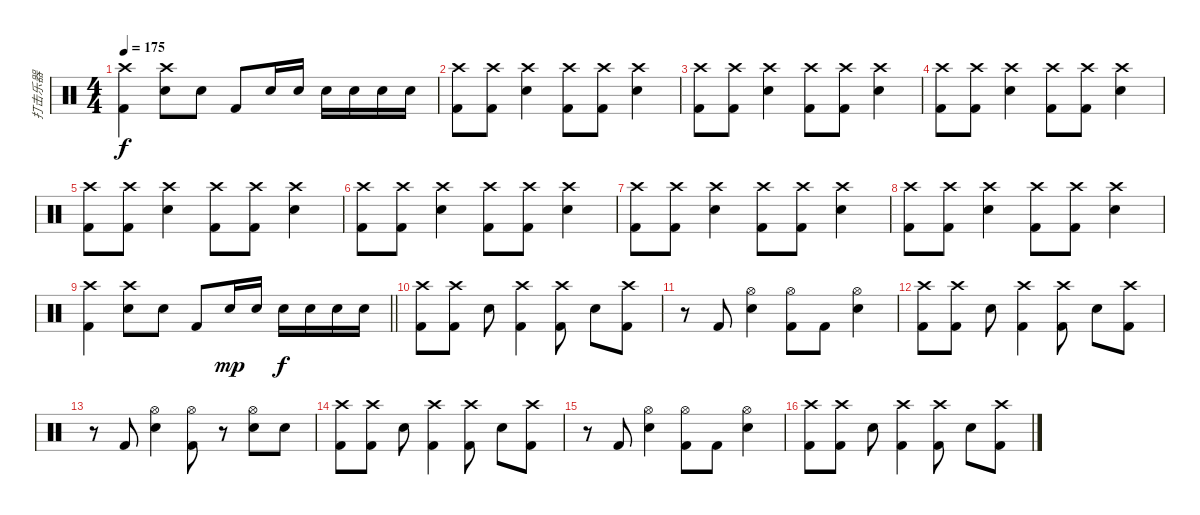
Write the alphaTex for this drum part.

\track ("打击乐器" "打击乐器") {instrument percussion}
\staff {score}
\articulation defaults
\ts (4 4)
\tempo 175
\clef neutral
\ks c
("Crash high (hit)" "Kick (hit) 2").4{dy f} ("Crash high (hit)" "Electric Snare (hit)").8 "Electric Snare (hit)".8 "Kick (hit) 2".8 "Electric Snare (hit)".16 "Electric Snare (hit)".16 "Electric Snare (hit)".16 "Electric Snare (hit)".16 "Electric Snare (hit)".16 "Electric Snare (hit)".16 |
("Crash high (hit)" "Kick (hit) 2").8 ("Crash high (hit)" "Kick (hit) 2").8 ("Crash high (hit)" "Electric Snare (hit)").4 ("Crash high (hit)" "Kick (hit) 2").8 ("Crash high (hit)" "Kick (hit) 2").8 ("Crash high (hit)" "Electric Snare (hit)").4 |
("Crash high (hit)" "Kick (hit) 2").8 ("Crash high (hit)" "Kick (hit) 2").8 ("Crash high (hit)" "Electric Snare (hit)").4 ("Crash high (hit)" "Kick (hit) 2").8 ("Crash high (hit)" "Kick (hit) 2").8 ("Crash high (hit)" "Electric Snare (hit)").4 |
("Crash high (hit)" "Kick (hit) 2").8 ("Crash high (hit)" "Kick (hit) 2").8 ("Crash high (hit)" "Electric Snare (hit)").4 ("Crash high (hit)" "Kick (hit) 2").8 ("Crash high (hit)" "Kick (hit) 2").8 ("Crash high (hit)" "Electric Snare (hit)").4 |
("Crash high (hit)" "Kick (hit) 2").8 ("Crash high (hit)" "Kick (hit) 2").8 ("Crash high (hit)" "Electric Snare (hit)").4 ("Crash high (hit)" "Kick (hit) 2").8 ("Crash high (hit)" "Kick (hit) 2").8 ("Crash high (hit)" "Electric Snare (hit)").4 |
("Crash high (hit)" "Kick (hit) 2").8 ("Crash high (hit)" "Kick (hit) 2").8 ("Crash high (hit)" "Electric Snare (hit)").4 ("Crash high (hit)" "Kick (hit) 2").8 ("Crash high (hit)" "Kick (hit) 2").8 ("Crash high (hit)" "Electric Snare (hit)").4 |
("Crash high (hit)" "Kick (hit) 2").8 ("Crash high (hit)" "Kick (hit) 2").8 ("Crash high (hit)" "Electric Snare (hit)").4 ("Crash high (hit)" "Kick (hit) 2").8 ("Crash high (hit)" "Kick (hit) 2").8 ("Crash high (hit)" "Electric Snare (hit)").4 |
("Crash high (hit)" "Kick (hit) 2").8 ("Crash high (hit)" "Kick (hit) 2").8 ("Crash high (hit)" "Electric Snare (hit)").4 ("Crash high (hit)" "Kick (hit) 2").8 ("Crash high (hit)" "Kick (hit) 2").8 ("Crash high (hit)" "Electric Snare (hit)").4 |
\barLineRight lightlight
("Crash high (hit)" "Kick (hit) 2").4 ("Crash high (hit)" "Electric Snare (hit)").8 "Electric Snare (hit)".8 "Kick (hit) 2".8 "Electric Snare (hit)".16{dy mp} "Electric Snare (hit)".16 "Electric Snare (hit)".16{dy f} "Electric Snare (hit)".16 "Electric Snare (hit)".16 "Electric Snare (hit)".16 |
("Crash high (hit)" "Kick (hit) 2").8 ("Crash high (hit)" "Kick (hit) 2").8 "Electric Snare (hit)".8 ("Crash high (hit)" "Kick (hit) 2").4 ("Crash high (hit)" "Kick (hit) 2").8 "Electric Snare (hit)".8 ("Crash high (hit)" "Kick (hit) 2").8 |
r.8 "Kick (hit) 2".8 ("Hi-Hat (open)" "Electric Snare (hit)").4 ("Hi-Hat (open)" "Kick (hit) 2").8 "Kick (hit) 2".8 ("Hi-Hat (open)" "Electric Snare (hit)").4 |
("Crash high (hit)" "Kick (hit) 2").8 ("Crash high (hit)" "Kick (hit) 2").8 "Electric Snare (hit)".8 ("Crash high (hit)" "Kick (hit) 2").4 ("Crash high (hit)" "Kick (hit) 2").8 "Electric Snare (hit)".8 ("Crash high (hit)" "Kick (hit) 2").8 |
r.8 "Kick (hit) 2".8 ("Hi-Hat (open)" "Electric Snare (hit)").4 ("Hi-Hat (open)" "Kick (hit) 2").8 r.8 ("Hi-Hat (open)" "Electric Snare (hit)").8 "Electric Snare (hit)".8 |
("Crash high (hit)" "Kick (hit) 2").8 ("Crash high (hit)" "Kick (hit) 2").8 "Electric Snare (hit)".8 ("Crash high (hit)" "Kick (hit) 2").4 ("Crash high (hit)" "Kick (hit) 2").8 "Electric Snare (hit)".8 ("Crash high (hit)" "Kick (hit) 2").8 |
r.8 "Kick (hit) 2".8 ("Hi-Hat (open)" "Electric Snare (hit)").4 ("Hi-Hat (open)" "Kick (hit) 2").8 "Kick (hit) 2".8 ("Hi-Hat (open)" "Electric Snare (hit)").4 |
("Crash high (hit)" "Kick (hit) 2").8 ("Crash high (hit)" "Kick (hit) 2").8 "Electric Snare (hit)".8 ("Crash high (hit)" "Kick (hit) 2").4 ("Crash high (hit)" "Kick (hit) 2").8 "Electric Snare (hit)".8 ("Crash high (hit)" "Kick (hit) 2").8
